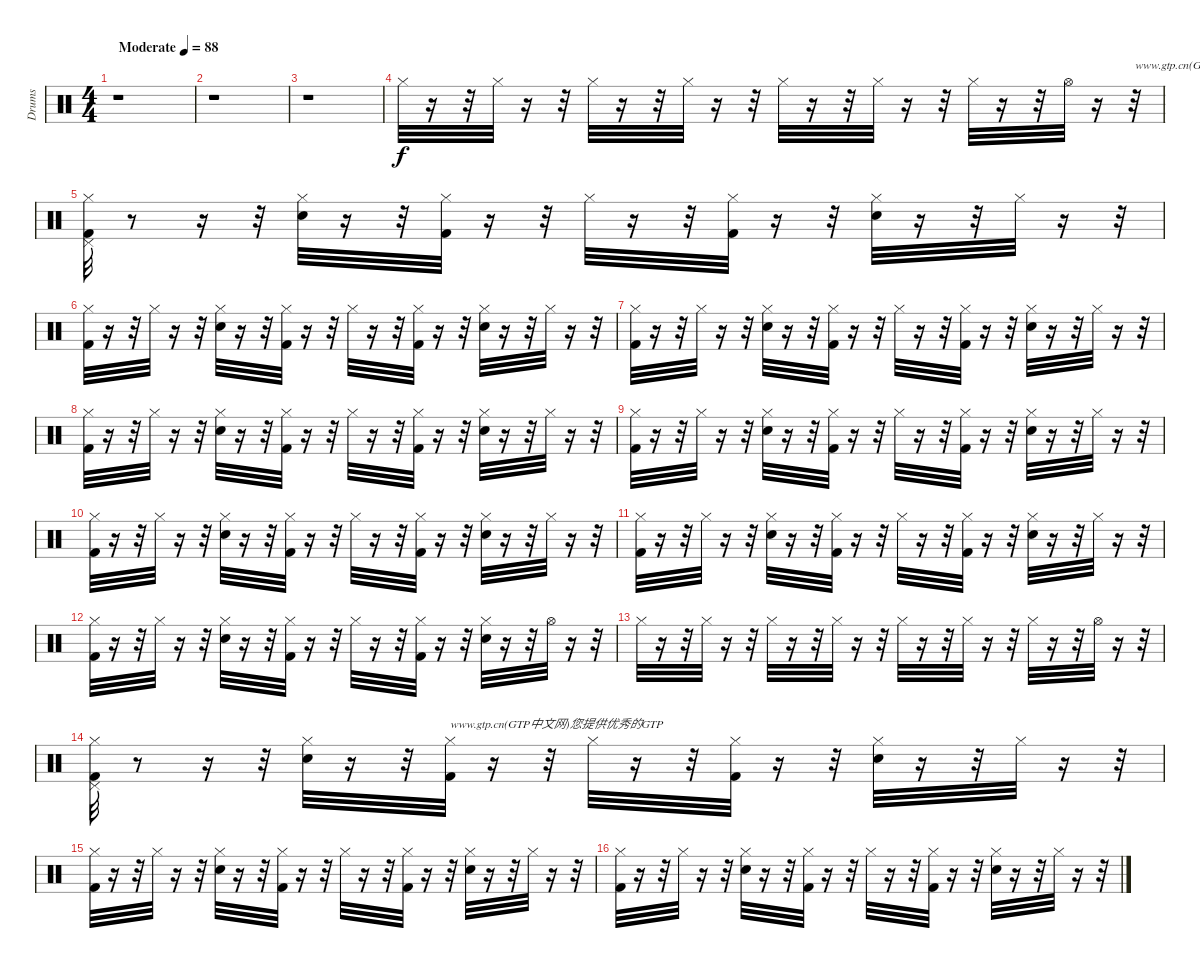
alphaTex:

\track ("Drums" "Drums") {instrument percussion}
\staff {score}
\articulation defaults
\ts (4 4)
\tempo (88 "Moderate")
\clef neutral
\ks c
r.1{dy f} |
r.1 |
r.1 |
"Hi-Hat (closed)".32 r.16 r.32 "Hi-Hat (closed)".32 r.16 r.32 "Hi-Hat (closed)".32 r.16 r.32 "Hi-Hat (closed)".32 r.16 r.32 "Hi-Hat (closed)".32 r.16 r.32 "Hi-Hat (closed)".32 r.16 r.32 "Hi-Hat (closed)".32 r.16 r.32 "Hi-Hat (open)".32 r.16 r.32{txt "www.gtp.cn(GTP中文网)您提供优秀的GTP"} |
("Hi-Hat (closed)" "Pedal Hi-Hat (hit)" "Kick (hit) 2").32 r.8 r.16 r.32 ("Hi-Hat (closed)" "Electric Snare (hit)").32 r.16 r.32 ("Kick (hit) 2" "Hi-Hat (closed)").32 r.16 r.32 "Hi-Hat (closed)".32 r.16 r.32 ("Kick (hit) 2" "Hi-Hat (closed)").32 r.16 r.32 ("Hi-Hat (closed)" "Electric Snare (hit)").32 r.16 r.32 "Hi-Hat (closed)".32 r.16 r.32 |
("Hi-Hat (closed)" "Kick (hit) 2").32 r.16 r.32 "Hi-Hat (closed)".32 r.16 r.32 ("Hi-Hat (closed)" "Electric Snare (hit)").32 r.16 r.32 ("Kick (hit) 2" "Hi-Hat (closed)").32 r.16 r.32 "Hi-Hat (closed)".32 r.16 r.32 ("Kick (hit) 2" "Hi-Hat (closed)").32 r.16 r.32 ("Hi-Hat (closed)" "Electric Snare (hit)").32 r.16 r.32 "Hi-Hat (closed)".32 r.16 r.32 |
("Hi-Hat (closed)" "Kick (hit) 2").32 r.16 r.32 "Hi-Hat (closed)".32 r.16 r.32 ("Hi-Hat (closed)" "Electric Snare (hit)").32 r.16 r.32 ("Kick (hit) 2" "Hi-Hat (closed)").32 r.16 r.32 "Hi-Hat (closed)".32 r.16 r.32 ("Kick (hit) 2" "Hi-Hat (closed)").32 r.16 r.32 ("Hi-Hat (closed)" "Electric Snare (hit)").32 r.16 r.32 "Hi-Hat (closed)".32 r.16 r.32 |
("Hi-Hat (closed)" "Kick (hit) 2").32 r.16 r.32 "Hi-Hat (closed)".32 r.16 r.32 ("Hi-Hat (closed)" "Electric Snare (hit)").32 r.16 r.32 ("Kick (hit) 2" "Hi-Hat (closed)").32 r.16 r.32 "Hi-Hat (closed)".32 r.16 r.32 ("Kick (hit) 2" "Hi-Hat (closed)").32 r.16 r.32 ("Hi-Hat (closed)" "Electric Snare (hit)").32 r.16 r.32 "Hi-Hat (closed)".32 r.16 r.32 |
("Hi-Hat (closed)" "Kick (hit) 2").32 r.16 r.32 "Hi-Hat (closed)".32 r.16 r.32 ("Hi-Hat (closed)" "Electric Snare (hit)").32 r.16 r.32 ("Kick (hit) 2" "Hi-Hat (closed)").32 r.16 r.32 "Hi-Hat (closed)".32 r.16 r.32 ("Kick (hit) 2" "Hi-Hat (closed)").32 r.16 r.32 ("Hi-Hat (closed)" "Electric Snare (hit)").32 r.16 r.32 "Hi-Hat (closed)".32 r.16 r.32 |
("Hi-Hat (closed)" "Kick (hit) 2").32 r.16 r.32 "Hi-Hat (closed)".32 r.16 r.32 ("Hi-Hat (closed)" "Electric Snare (hit)").32 r.16 r.32 ("Kick (hit) 2" "Hi-Hat (closed)").32 r.16 r.32 "Hi-Hat (closed)".32 r.16 r.32 ("Kick (hit) 2" "Hi-Hat (closed)").32 r.16 r.32 ("Hi-Hat (closed)" "Electric Snare (hit)").32 r.16 r.32 "Hi-Hat (closed)".32 r.16 r.32 |
("Hi-Hat (closed)" "Kick (hit) 2").32 r.16 r.32 "Hi-Hat (closed)".32 r.16 r.32 ("Hi-Hat (closed)" "Electric Snare (hit)").32 r.16 r.32 ("Kick (hit) 2" "Hi-Hat (closed)").32 r.16 r.32 "Hi-Hat (closed)".32 r.16 r.32 ("Kick (hit) 2" "Hi-Hat (closed)").32 r.16 r.32 ("Hi-Hat (closed)" "Electric Snare (hit)").32 r.16 r.32 "Hi-Hat (closed)".32 r.16 r.32 |
("Hi-Hat (closed)" "Kick (hit) 2").32 r.16 r.32 "Hi-Hat (closed)".32 r.16 r.32 ("Hi-Hat (closed)" "Electric Snare (hit)").32 r.16 r.32 ("Kick (hit) 2" "Hi-Hat (closed)").32 r.16 r.32 "Hi-Hat (closed)".32 r.16 r.32 ("Kick (hit) 2" "Hi-Hat (closed)").32 r.16 r.32 ("Hi-Hat (closed)" "Electric Snare (hit)").32 r.16 r.32 "Hi-Hat (open)".32 r.16 r.32 |
"Hi-Hat (closed)".32 r.16 r.32 "Hi-Hat (closed)".32 r.16 r.32 "Hi-Hat (closed)".32 r.16 r.32 "Hi-Hat (closed)".32 r.16 r.32 "Hi-Hat (closed)".32 r.16 r.32 "Hi-Hat (closed)".32 r.16 r.32 "Hi-Hat (closed)".32 r.16 r.32 "Hi-Hat (open)".32 r.16 r.32 |
("Hi-Hat (closed)" "Pedal Hi-Hat (hit)" "Kick (hit) 2").32 r.8 r.16 r.32 ("Hi-Hat (closed)" "Electric Snare (hit)").32 r.16 r.32 ("Kick (hit) 2" "Hi-Hat (closed)").32{txt "www.gtp.cn(GTP中文网)您提供优秀的GTP"} r.16 r.32 "Hi-Hat (closed)".32 r.16 r.32 ("Kick (hit) 2" "Hi-Hat (closed)").32 r.16 r.32 ("Hi-Hat (closed)" "Electric Snare (hit)").32 r.16 r.32 "Hi-Hat (closed)".32 r.16 r.32 |
("Hi-Hat (closed)" "Kick (hit) 2").32 r.16 r.32 "Hi-Hat (closed)".32 r.16 r.32 ("Hi-Hat (closed)" "Electric Snare (hit)").32 r.16 r.32 ("Kick (hit) 2" "Hi-Hat (closed)").32 r.16 r.32 "Hi-Hat (closed)".32 r.16 r.32 ("Kick (hit) 2" "Hi-Hat (closed)").32 r.16 r.32 ("Hi-Hat (closed)" "Electric Snare (hit)").32 r.16 r.32 "Hi-Hat (closed)".32 r.16 r.32 |
("Hi-Hat (closed)" "Kick (hit) 2").32 r.16 r.32 "Hi-Hat (closed)".32 r.16 r.32 ("Hi-Hat (closed)" "Electric Snare (hit)").32 r.16 r.32 ("Kick (hit) 2" "Hi-Hat (closed)").32 r.16 r.32 "Hi-Hat (closed)".32 r.16 r.32 ("Kick (hit) 2" "Hi-Hat (closed)").32 r.16 r.32 ("Hi-Hat (closed)" "Electric Snare (hit)").32 r.16 r.32 "Hi-Hat (closed)".32 r.16 r.32
